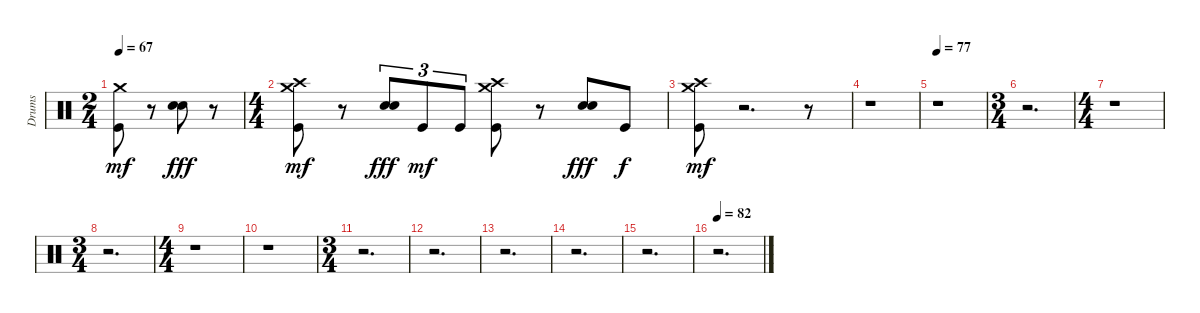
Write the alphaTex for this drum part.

\track ("Drums" "Drums") {instrument percussion}
\staff {score}
\articulation defaults
\ts (2 4)
\tempo 67
\clef neutral
\ks c
("Kick (hit)" "Crash medium (hit)").8{dy mf} r.8 ("Snare (hit) 2" "Electric Snare (hit)").8{dy fff} r.8 |
\ts (4 4)
("Kick (hit)" "Crash high (hit)" "Crash medium (hit)").8{dy mf} r.8 ("Snare (hit) 2" "Electric Snare (hit)").8{tu (3 2) dy fff} "Kick (hit)".8{tu (3 2) dy mf} "Kick (hit)".8{tu (3 2)} ("Kick (hit)" "Crash high (hit)" "Crash medium (hit)").8 r.8 ("Snare (hit) 2" "Electric Snare (hit)").8{dy fff} "Kick (hit)".8{dy f} |
("Kick (hit)" "Crash high (hit)" "Crash medium (hit)").8{dy mf} r.2{d} r.8 |
r.1 |
\tempo 77
r.1 |
\ts (3 4)
r.2{d} |
\ts (4 4)
r.1 |
\ts (3 4)
r.2{d} |
\ts (4 4)
r.1 |
r.1 |
\ts (3 4)
r.2{d} |
r.2{d} |
r.2{d} |
r.2{d} |
r.2{d} |
\tempo 82
r.2{d}
